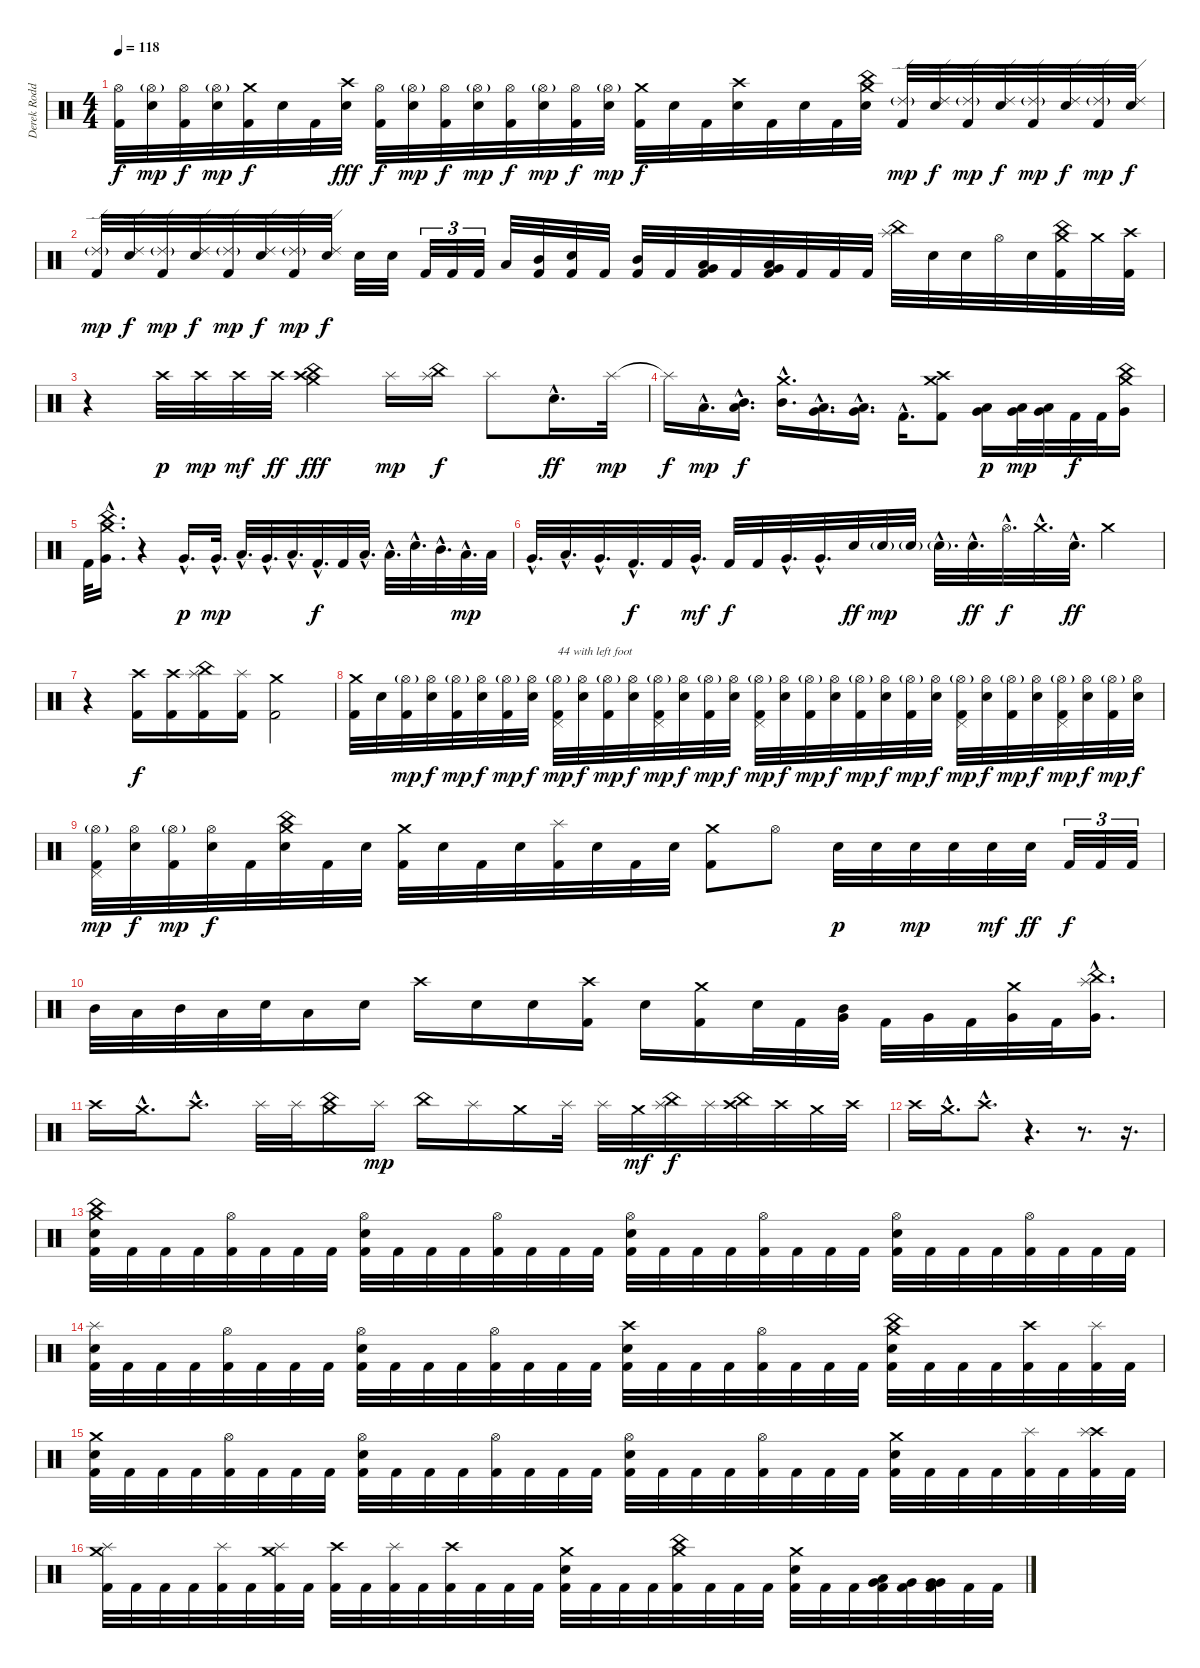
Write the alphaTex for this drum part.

\track ("Derek Roddy" "Derek Rodd") {instrument percussion}
\staff {score}
\articulation defaults
\ts (4 4)
\tempo 118
\clef neutral
\ks c
("Hi-Hat (open)" "Kick (hit) 2").32{dy f} ("Hi-Hat (open)"{g} "Electric Snare (hit)").32{dy mp} ("Hi-Hat (open)" "Kick (hit) 2").32{dy f} ("Hi-Hat (open)"{g} "Electric Snare (hit)").32{dy mp} ("Crash medium (hit)" "Kick (hit) 2").32{dy f} "Electric Snare (hit)".32 "Kick (hit) 2".32 ("Crash high (hit)" "Electric Snare (hit)").32{dy fff} ("Hi-Hat (open)" "Kick (hit) 2").32{dy f} ("Hi-Hat (open)"{g} "Electric Snare (hit)").32{dy mp} ("Hi-Hat (open)" "Kick (hit) 2").32{dy f} ("Hi-Hat (open)"{g} "Electric Snare (hit)").32{dy mp} ("Hi-Hat (open)" "Kick (hit) 2").32{dy f} ("Hi-Hat (open)"{g} "Electric Snare (hit)").32{dy mp} ("Hi-Hat (open)" "Kick (hit) 2").32{dy f} ("Hi-Hat (open)"{g} "Electric Snare (hit)").32{dy mp} ("Crash medium (hit)" "Kick (hit) 2").32{dy f} "Electric Snare (hit)".32 "Kick (hit) 2".32 ("Crash high (hit)" "Electric Snare (hit)").32 "Kick (hit) 2".32 "Electric Snare (hit)".32 "Kick (hit) 2".32 ("Crash medium (hit)" "China (hit)" "Electric Snare (hit)").32 ("Ride (edge) 2"{g} "Kick (hit) 2").32{dy mp} ("Ride (edge) 2" "Electric Snare (hit)").32{dy f} ("Ride (edge) 2"{g} "Kick (hit) 2").32{dy mp} ("Ride (edge) 2" "Electric Snare (hit)").32{dy f} ("Ride (edge) 2"{g} "Kick (hit) 2").32{dy mp} ("Ride (edge) 2" "Electric Snare (hit)").32{dy f} ("Ride (edge) 2"{g} "Kick (hit) 2").32{dy mp} ("Ride (edge) 2" "Electric Snare (hit)").32{dy f} |
("Ride (edge) 2"{g} "Kick (hit) 2").32{dy mp} ("Ride (edge) 2" "Electric Snare (hit)").32{dy f} ("Ride (edge) 2"{g} "Kick (hit) 2").32{dy mp} ("Ride (edge) 2" "Electric Snare (hit)").32{dy f} ("Ride (edge) 2"{g} "Kick (hit) 2").32{dy mp} ("Ride (edge) 2" "Electric Snare (hit)").32{dy f} ("Ride (edge) 2"{g} "Kick (hit) 2").32{dy mp} ("Ride (edge) 2" "Electric Snare (hit)").32{dy f} "Electric Snare (hit)".32 "Electric Snare (hit)".32 "Kick (hit) 2".32{tu (3 2)} "Kick (hit) 2".32{tu (3 2)} "Kick (hit) 2".32{tu (3 2)} "Low Tom (hit)".32 ("Mid Tom (hit)" "Kick (hit) 2").32 ("Electric Snare (hit)" "Kick (hit) 2").32 "Kick (hit) 2".32 ("Mid Tom (hit)" "Kick (hit) 2").32 "Kick (hit) 2".32 ("Very Low Tom (hit)" "Low Tom (hit)" "Kick (hit) 2").32 "Kick (hit) 2".32 ("Very Low Tom (hit)" "Low Tom (hit)" "Kick (hit) 2").32 "Kick (hit) 2".32 "Kick (hit) 2".32 "Kick (hit) 2".32 ("Splash (hit)" "China (hit)").32 "Electric Snare (hit)".32 "Electric Snare (hit)".32 "Hi-Hat (open)".32 "Electric Snare (hit)".32 ("Crash medium (hit)" "China (hit)" "Kick (hit) 2").32 "Crash medium (hit)".32 ("Crash high (hit)" "Kick (hit) 2").32 |
r.4 "Crash high (hit)".32{dy p} "Crash high (hit)".32{dy mp} "Crash high (hit)".32{dy mf} "Crash high (hit)".32{dy ff} ("Crash high (hit)" "China (hit)" "Crash medium (hit)").4{dy fff} "Splash (hit)".16{dy mp} ("Splash (hit)" "China (hit)").16{dy f} "Splash (hit)".8 "Electric Snare (hit)"{hac}.16{d dy ff} "Splash (hit)".32{dy mp} |
"Splash (hit)"{t}.16{dy f} "Low Tom (hit)"{hac}.16{d dy mp} ("Low Tom (hit)"{hac} "Mid Tom (hit)"{hac}).16{d dy f} ("Crash medium (hit)"{hac} "Mid Tom (hit)"{hac}).16{d} ("Very Low Tom (hit)"{hac} "Low Tom (hit)"{hac}).16{d} ("Very Low Tom (hit)"{hac} "Low Tom (hit)"{hac}).16{d} "Kick (hit) 2"{hac}.16{d} ("Crash medium (hit)" "Crash high (hit)" "Kick (hit) 2").8 ("Low Tom (hit)" "Very Low Tom (hit)").16{dy p} ("Low Tom (hit)" "Very Low Tom (hit)").32{dy mp} ("Low Tom (hit)" "Very Low Tom (hit)").32 "Kick (hit) 2".32{dy f} "Kick (hit) 2".32 ("Crash medium (hit)" "China (hit)" "Very Low Tom (hit)").16 |
"Kick (hit) 2".32 ("Crash medium (hit)"{hac} "China (hit)"{hac} "Very Low Tom (hit)"{hac}).16{d} r.4 "Very Low Tom (hit)"{hac}.16{d dy p} "Very Low Tom (hit)"{hac}.32{d dy mp} "Low Tom (hit)"{hac}.32{d} "Very Low Tom (hit)"{hac}.32{d} "Low Tom (hit)"{hac}.32{d} "Kick (hit) 2"{hac}.32{d dy f} "Kick (hit) 2".32 "Low Tom (hit)"{hac}.32{d} "Low Tom (hit)"{hac}.32{d} "Electric Snare (hit)"{hac}.32{d} "Mid Tom (hit)"{hac}.32{d} "Low Tom (hit)"{hac}.32{d dy mp} "Low Tom (hit)".32 |
"Very Low Tom (hit)"{hac}.32{d} "Low Tom (hit)"{hac}.32{d} "Very Low Tom (hit)"{hac}.32{d} "Kick (hit) 2"{hac}.32{d dy f} "Kick (hit) 2".32 "Very Low Tom (hit)"{hac}.32{d dy mf} "Kick (hit) 2".32{dy f} "Kick (hit) 2".32 "Very Low Tom (hit)"{hac}.32{d} "Very Low Tom (hit)"{hac}.32{d} "Electric Snare (hit)".32{dy ff} "Electric Snare (hit)"{g}.32{dy mp} "Electric Snare (hit)"{g}.32 "Electric Snare (hit)"{g hac}.32{d} "Electric Snare (hit)"{hac}.32{d dy ff} "Hi-Hat (open)"{hac}.32{d dy f} "Crash medium (hit)"{hac}.32{d} "Electric Snare (hit)"{hac}.32{d dy ff} "Crash medium (hit)".4 |
r.4 ("Crash high (hit)" "Kick (hit) 2").16{dy f} ("Crash high (hit)" "Kick (hit) 2").16 ("Splash (hit)" "China (hit)" "Kick (hit) 2").16 ("Splash (hit)" "Kick (hit) 2").16 ("Crash medium (hit)" "Kick (hit) 2").2 |
("Crash medium (hit)" "Kick (hit) 2").32 "Electric Snare (hit)".32 ("Hi-Hat (open)"{g} "Kick (hit) 2").32{dy mp} ("Hi-Hat (open)" "Electric Snare (hit)").32{dy f} ("Hi-Hat (open)"{g} "Kick (hit) 2").32{dy mp} ("Hi-Hat (open)" "Electric Snare (hit)").32{dy f} ("Hi-Hat (open)"{g} "Kick (hit) 2").32{dy mp} ("Hi-Hat (open)" "Electric Snare (hit)").32{dy f} ("Pedal Hi-Hat (hit)" "Hi-Hat (open)"{g} "Kick (hit) 2").32{txt "44 with left foot" dy mp} ("Hi-Hat (open)" "Electric Snare (hit)").32{dy f} ("Hi-Hat (open)"{g} "Kick (hit) 2").32{dy mp} ("Hi-Hat (open)" "Electric Snare (hit)").32{dy f} ("Pedal Hi-Hat (hit)" "Hi-Hat (open)"{g} "Kick (hit) 2").32{dy mp} ("Hi-Hat (open)" "Electric Snare (hit)").32{dy f} ("Hi-Hat (open)"{g} "Kick (hit) 2").32{dy mp} ("Hi-Hat (open)" "Electric Snare (hit)").32{dy f} ("Pedal Hi-Hat (hit)" "Hi-Hat (open)"{g} "Kick (hit) 2").32{dy mp} ("Hi-Hat (open)" "Electric Snare (hit)").32{dy f} ("Hi-Hat (open)"{g} "Kick (hit) 2").32{dy mp} ("Hi-Hat (open)" "Electric Snare (hit)").32{dy f} ("Hi-Hat (open)"{g} "Kick (hit) 2").32{dy mp} ("Hi-Hat (open)" "Electric Snare (hit)").32{dy f} ("Hi-Hat (open)"{g} "Kick (hit) 2").32{dy mp} ("Hi-Hat (open)" "Electric Snare (hit)").32{dy f} ("Pedal Hi-Hat (hit)" "Hi-Hat (open)"{g} "Kick (hit) 2").32{dy mp} ("Hi-Hat (open)" "Electric Snare (hit)").32{dy f} ("Hi-Hat (open)"{g} "Kick (hit) 2").32{dy mp} ("Hi-Hat (open)" "Electric Snare (hit)").32{dy f} ("Pedal Hi-Hat (hit)" "Hi-Hat (open)"{g} "Kick (hit) 2").32{dy mp} ("Hi-Hat (open)" "Electric Snare (hit)").32{dy f} ("Hi-Hat (open)"{g} "Kick (hit) 2").32{dy mp} ("Hi-Hat (open)" "Electric Snare (hit)").32{dy f} |
("Pedal Hi-Hat (hit)" "Hi-Hat (open)"{g} "Kick (hit) 2").32{dy mp} ("Hi-Hat (open)" "Electric Snare (hit)").32{dy f} ("Hi-Hat (open)"{g} "Kick (hit) 2").32{dy mp} ("Hi-Hat (open)" "Electric Snare (hit)").32{dy f} "Kick (hit) 2".32 ("Crash medium (hit)" "China (hit)" "Electric Snare (hit)").32 "Kick (hit) 2".32 "Electric Snare (hit)".32 ("Crash medium (hit)" "Kick (hit) 2").32 "Electric Snare (hit)".32 "Kick (hit) 2".32 "Electric Snare (hit)".32 ("Splash (hit)" "Kick (hit) 2").32 "Electric Snare (hit)".32 "Kick (hit) 2".32 "Electric Snare (hit)".32 ("Crash medium (hit)" "Kick (hit) 2").8 "Hi-Hat (open)".8 "Electric Snare (hit)".32{dy p} "Electric Snare (hit)".32 "Electric Snare (hit)".32{dy mp} "Electric Snare (hit)".32 "Electric Snare (hit)".32{dy mf} "Electric Snare (hit)".32{dy ff} "Kick (hit) 2".32{tu (3 2) dy f} "Kick (hit) 2".32{tu (3 2)} "Kick (hit) 2".32{tu (3 2)} |
"Mid Tom (hit)".32 "Low Tom (hit)".32 "Mid Tom (hit)".32 "Low Tom (hit)".32 "Electric Snare (hit)".32 "Low Tom (hit)".16 "Electric Snare (hit)".16 "Crash high (hit)".16 "Electric Snare (hit)".16 "Electric Snare (hit)".16 ("Crash high (hit)" "Kick (hit) 2").16 "Electric Snare (hit)".16 ("Crash medium (hit)" "Kick (hit) 2").16 "Electric Snare (hit)".32 "Kick (hit) 2".32 ("Mid Tom (hit)" "Very Low Tom (hit)").32 "Kick (hit) 2".32 "Very Low Tom (hit)".32 "Kick (hit) 2".32 ("Crash medium (hit)" "Very Low Tom (hit)").32 "Kick (hit) 2".32 ("Splash (hit)"{hac} "China (hit)"{hac} "Very Low Tom (hit)"{hac}).16{d} |
"Crash high (hit)".16 "Crash medium (hit)"{hac}.16{d} "Crash high (hit)"{hac}.8{d} "Splash (hit)".32 "Splash (hit)".32 ("Crash medium (hit)" "China (hit)").16 "Splash (hit)".16{dy mp} "China (hit)".16 "Splash (hit)".16 "Crash medium (hit)".16 "Splash (hit)".32 "Splash (hit)".32 "Crash medium (hit)".32{dy mf} ("Splash (hit)" "China (hit)").32{dy f} "Splash (hit)".32 ("Crash high (hit)" "China (hit)").32 "Crash high (hit)".32 "Crash medium (hit)".32 "Crash high (hit)".32 |
"Crash high (hit)".16 "Crash medium (hit)"{hac}.16{d} "Crash high (hit)"{hac}.8{d} r.4{d} r.8{d} r.16{d} |
("Crash medium (hit)" "China (hit)" "Electric Snare (hit)" "Kick (hit) 2").32 "Kick (hit) 2".32 "Kick (hit) 2".32 "Kick (hit) 2".32 ("Hi-Hat (open)" "Kick (hit) 2").32 "Kick (hit) 2".32 "Kick (hit) 2".32 "Kick (hit) 2".32 ("Hi-Hat (open)" "Electric Snare (hit)" "Kick (hit) 2").32 "Kick (hit) 2".32 "Kick (hit) 2".32 "Kick (hit) 2".32 ("Hi-Hat (open)" "Kick (hit) 2").32 "Kick (hit) 2".32 "Kick (hit) 2".32 "Kick (hit) 2".32 ("Hi-Hat (open)" "Electric Snare (hit)" "Kick (hit) 2").32 "Kick (hit) 2".32 "Kick (hit) 2".32 "Kick (hit) 2".32 ("Hi-Hat (open)" "Kick (hit) 2").32 "Kick (hit) 2".32 "Kick (hit) 2".32 "Kick (hit) 2".32 ("Hi-Hat (open)" "Electric Snare (hit)" "Kick (hit) 2").32 "Kick (hit) 2".32 "Kick (hit) 2".32 "Kick (hit) 2".32 ("Hi-Hat (open)" "Kick (hit) 2").32 "Kick (hit) 2".32 "Kick (hit) 2".32 "Kick (hit) 2".32 |
("Splash (hit)" "Electric Snare (hit)" "Kick (hit) 2").32 "Kick (hit) 2".32 "Kick (hit) 2".32 "Kick (hit) 2".32 ("Hi-Hat (open)" "Kick (hit) 2").32 "Kick (hit) 2".32 "Kick (hit) 2".32 "Kick (hit) 2".32 ("Hi-Hat (open)" "Electric Snare (hit)" "Kick (hit) 2").32 "Kick (hit) 2".32 "Kick (hit) 2".32 "Kick (hit) 2".32 ("Hi-Hat (open)" "Kick (hit) 2").32 "Kick (hit) 2".32 "Kick (hit) 2".32 "Kick (hit) 2".32 ("Crash high (hit)" "Electric Snare (hit)" "Kick (hit) 2").32 "Kick (hit) 2".32 "Kick (hit) 2".32 "Kick (hit) 2".32 ("Hi-Hat (open)" "Kick (hit) 2").32 "Kick (hit) 2".32 "Kick (hit) 2".32 "Kick (hit) 2".32 ("Crash medium (hit)" "China (hit)" "Electric Snare (hit)" "Kick (hit) 2").32 "Kick (hit) 2".32 "Kick (hit) 2".32 "Kick (hit) 2".32 ("Crash high (hit)" "Kick (hit) 2").32 "Kick (hit) 2".32 ("Splash (hit)" "Kick (hit) 2").32 "Kick (hit) 2".32 |
("Crash medium (hit)" "Electric Snare (hit)" "Kick (hit) 2").32 "Kick (hit) 2".32 "Kick (hit) 2".32 "Kick (hit) 2".32 ("Hi-Hat (open)" "Kick (hit) 2").32 "Kick (hit) 2".32 "Kick (hit) 2".32 "Kick (hit) 2".32 ("Hi-Hat (open)" "Electric Snare (hit)" "Kick (hit) 2").32 "Kick (hit) 2".32 "Kick (hit) 2".32 "Kick (hit) 2".32 ("Hi-Hat (open)" "Kick (hit) 2").32 "Kick (hit) 2".32 "Kick (hit) 2".32 "Kick (hit) 2".32 ("Hi-Hat (open)" "Electric Snare (hit)" "Kick (hit) 2").32 "Kick (hit) 2".32 "Kick (hit) 2".32 "Kick (hit) 2".32 ("Hi-Hat (open)" "Kick (hit) 2").32 "Kick (hit) 2".32 "Kick (hit) 2".32 "Kick (hit) 2".32 ("Crash medium (hit)" "Electric Snare (hit)" "Kick (hit) 2").32 "Kick (hit) 2".32 "Kick (hit) 2".32 "Kick (hit) 2".32 ("Splash (hit)" "Kick (hit) 2").32 "Kick (hit) 2".32 ("Crash high (hit)" "Splash (hit)" "Kick (hit) 2").32 "Kick (hit) 2".32 |
("Crash medium (hit)" "Splash (hit)" "Kick (hit) 2").32 "Kick (hit) 2".32 "Kick (hit) 2".32 "Kick (hit) 2".32 ("Splash (hit)" "Kick (hit) 2").32 "Kick (hit) 2".32 ("Crash medium (hit)" "Splash (hit)" "Kick (hit) 2").32 "Kick (hit) 2".32 ("Crash high (hit)" "Kick (hit) 2").32 "Kick (hit) 2".32 ("Splash (hit)" "Kick (hit) 2").32 "Kick (hit) 2".32 ("Crash high (hit)" "Kick (hit) 2").32 "Kick (hit) 2".32 "Kick (hit) 2".32 "Kick (hit) 2".32 ("Crash medium (hit)" "Electric Snare (hit)" "Kick (hit) 2").32 "Kick (hit) 2".32 "Kick (hit) 2".32 "Kick (hit) 2".32 ("Crash medium (hit)" "China (hit)" "Kick (hit) 2").32 "Kick (hit) 2".32 "Kick (hit) 2".32 "Kick (hit) 2".32 ("Crash medium (hit)" "Electric Snare (hit)" "Kick (hit) 2").32 "Kick (hit) 2".32 "Kick (hit) 2".32 ("Low Tom (hit)" "Very Low Tom (hit)" "Kick (hit) 2").32 ("Very Low Tom (hit)" "Kick (hit) 2").32 ("Very Low Tom (hit)" "Very Low Tom (hit)" "Kick (hit) 2").32 "Kick (hit) 2".32 "Kick (hit) 2".32
